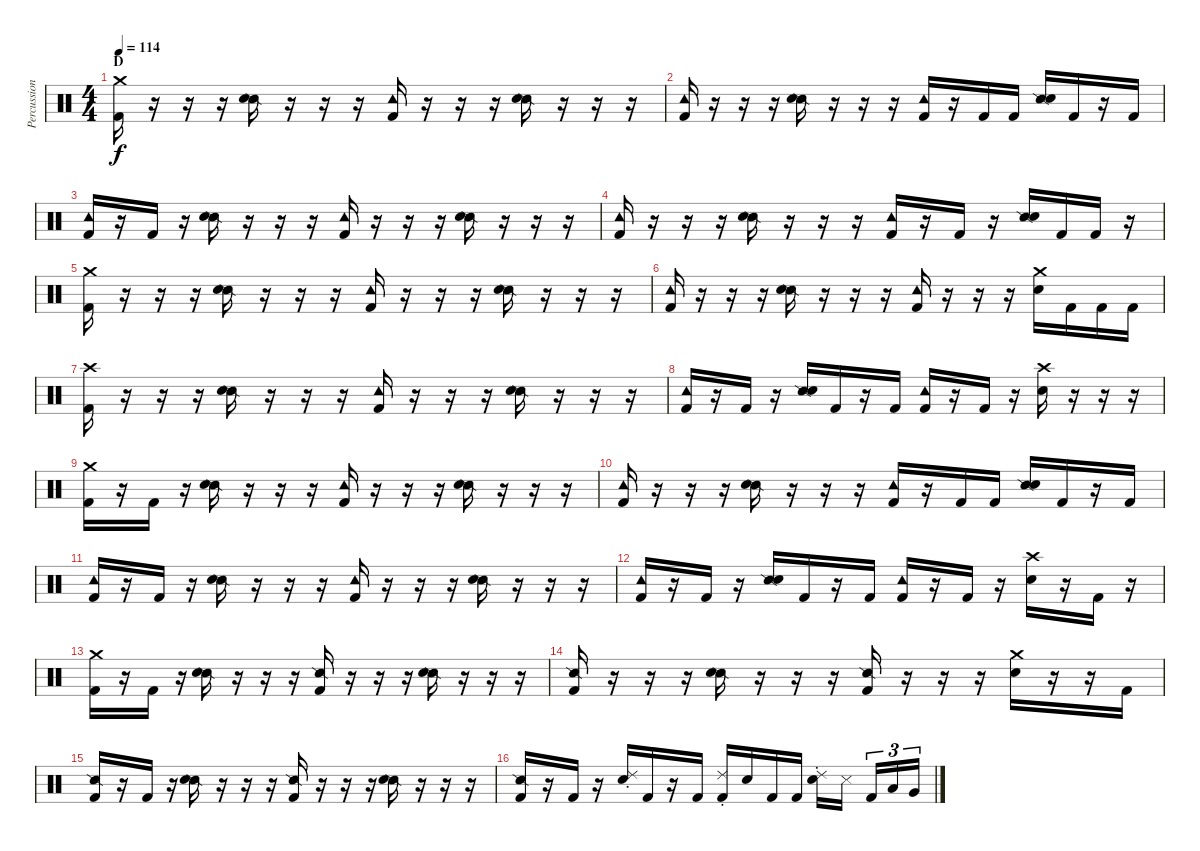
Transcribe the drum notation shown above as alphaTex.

\track ("Percussion" "Percussion") {instrument percussion}
\staff {score}
\articulation defaults
\ts (4 4)
\section ("" "D")
\tempo 114
\clef neutral
\ks c
("Crash medium (hit)" "Kick (hit) 2").16{dy f} r.16 r.16 r.16 ("Snare (side stick) 2" "Snare (hit) 2").16 r.16 r.16 r.16 ("Tambourine (hit)" "Kick (hit) 2").16 r.16 r.16 r.16 ("Snare (side stick) 2" "Snare (hit) 2").16 r.16 r.16 r.16 |
("Tambourine (hit)" "Kick (hit) 2").16 r.16 r.16 r.16 ("Snare (side stick) 2" "Snare (hit) 2").16 r.16 r.16 r.16 ("Tambourine (hit)" "Kick (hit) 2").16 r.16 "Kick (hit) 2".16 "Kick (hit) 2".16 ("Snare (side stick) 2" "Snare (hit) 2").16 "Kick (hit) 2".16 r.16 "Kick (hit) 2".16 |
("Tambourine (hit)" "Kick (hit) 2").16 r.16 "Kick (hit) 2".16 r.16 ("Snare (side stick) 2" "Snare (hit) 2").16 r.16 r.16 r.16 ("Tambourine (hit)" "Kick (hit) 2").16 r.16 r.16 r.16 ("Snare (side stick) 2" "Snare (hit) 2").16 r.16 r.16 r.16 |
("Tambourine (hit)" "Kick (hit) 2").16 r.16 r.16 r.16 ("Snare (side stick) 2" "Snare (hit) 2").16 r.16 r.16 r.16 ("Tambourine (hit)" "Kick (hit) 2").16 r.16 "Kick (hit) 2".16 r.16 ("Snare (side stick) 2" "Snare (hit) 2").16 "Kick (hit) 2".16 "Kick (hit) 2".16 r.16 |
("Crash medium (hit)" "Kick (hit) 2").16 r.16 r.16 r.16 ("Snare (side stick) 2" "Snare (hit) 2").16 r.16 r.16 r.16 ("Tambourine (hit)" "Kick (hit) 2").16 r.16 r.16 r.16 ("Snare (side stick) 2" "Snare (hit) 2").16 r.16 r.16 r.16 |
("Tambourine (hit)" "Kick (hit) 2").16 r.16 r.16 r.16 ("Snare (side stick) 2" "Snare (hit) 2").16 r.16 r.16 r.16 ("Tambourine (hit)" "Kick (hit) 2").16 r.16 r.16 r.16 ("Crash medium (hit)" "Snare (hit) 2").16 "Kick (hit) 2".16 "Kick (hit) 2".16 "Kick (hit) 2".16 |
("Crash high (hit)" "Kick (hit) 2").16 r.16 r.16 r.16 ("Snare (side stick) 2" "Snare (hit) 2").16 r.16 r.16 r.16 ("Tambourine (hit)" "Kick (hit) 2").16 r.16 r.16 r.16 ("Snare (side stick) 2" "Snare (hit) 2").16 r.16 r.16 r.16 |
("Tambourine (hit)" "Kick (hit) 2").16 r.16 "Kick (hit) 2".16 r.16 ("Snare (side stick) 2" "Snare (hit) 2").16 "Kick (hit) 2".16 r.16 "Kick (hit) 2".16 ("Tambourine (hit)" "Kick (hit) 2").16 r.16 "Kick (hit) 2".16 r.16 ("Crash high (hit)" "Snare (hit) 2").16 r.16 r.16 r.16 |
("Crash medium (hit)" "Kick (hit) 2").16 r.16 "Kick (hit) 2".16 r.16 ("Snare (side stick) 2" "Snare (hit) 2").16 r.16 r.16 r.16 ("Tambourine (hit)" "Kick (hit) 2").16 r.16 r.16 r.16 ("Snare (side stick) 2" "Snare (hit) 2").16 r.16 r.16 r.16 |
("Tambourine (hit)" "Kick (hit) 2").16 r.16 r.16 r.16 ("Snare (side stick) 2" "Snare (hit) 2").16 r.16 r.16 r.16 ("Tambourine (hit)" "Kick (hit) 2").16 r.16 "Kick (hit) 2".16 "Kick (hit) 2".16 ("Snare (side stick) 2" "Snare (hit) 2").16 "Kick (hit) 2".16 r.16 "Kick (hit) 2".16 |
("Tambourine (hit)" "Kick (hit) 2").16 r.16 "Kick (hit) 2".16 r.16 ("Snare (side stick) 2" "Snare (hit) 2").16 r.16 r.16 r.16 ("Tambourine (hit)" "Kick (hit) 2").16 r.16 r.16 r.16 ("Snare (side stick) 2" "Snare (hit) 2").16 r.16 r.16 r.16 |
("Tambourine (hit)" "Kick (hit) 2").16 r.16 "Kick (hit) 2".16 r.16 ("Snare (side stick) 2" "Snare (hit) 2").16 "Kick (hit) 2".16 r.16 "Kick (hit) 2".16 ("Tambourine (hit)" "Kick (hit) 2").16 r.16 "Kick (hit) 2".16 r.16 ("Crash high (hit)" "Snare (hit) 2").16 r.16 "Kick (hit) 2".16 r.16 |
("Crash medium (hit)" "Kick (hit) 2").16 r.16 "Kick (hit) 2".16 r.16 ("Snare (side stick) 2" "Snare (hit) 2").16 r.16 r.16 r.16 ("Snare (side stick) 2" "Kick (hit) 2").16 r.16 r.16 r.16 ("Snare (side stick) 2" "Snare (hit) 2").16 r.16 r.16 r.16 |
("Snare (side stick) 2" "Kick (hit) 2").16 r.16 r.16 r.16 ("Snare (side stick) 2" "Snare (hit) 2").16 r.16 r.16 r.16 ("Snare (side stick) 2" "Kick (hit) 2").16 r.16 r.16 r.16 ("Crash medium (hit)" "Snare (hit) 2").16 r.16 r.16 "Kick (hit) 2".16 |
("Snare (side stick) 2" "Kick (hit) 2").16 r.16 "Kick (hit) 2".16 r.16 ("Snare (side stick) 2" "Snare (hit) 2").16 r.16 r.16 r.16 ("Snare (side stick) 2" "Kick (hit) 2").16 r.16 r.16 r.16 ("Snare (side stick) 2" "Snare (hit) 2").16 r.16 r.16 r.16 |
("Snare (side stick) 2" "Kick (hit) 2").16 r.16 "Kick (hit) 2".16 r.16 ("Ride (choke) 2" "Snare (hit) 2").16 "Kick (hit) 2".16 r.16 "Kick (hit) 2".16 ("Ride (choke) 2" "Kick (hit) 2").16 "Snare (hit) 2".16 "Kick (hit) 2".16 "Kick (hit) 2".16 ("Ride (choke) 2" "Snare (hit) 2").16 "Metronome (hit)".16{beam splitsecondary} "Kick (hit) 2".16{tu (3 2)} "Low Tom (hit)".16{tu (3 2)} "Very Low Tom (hit)".16{tu (3 2)}
